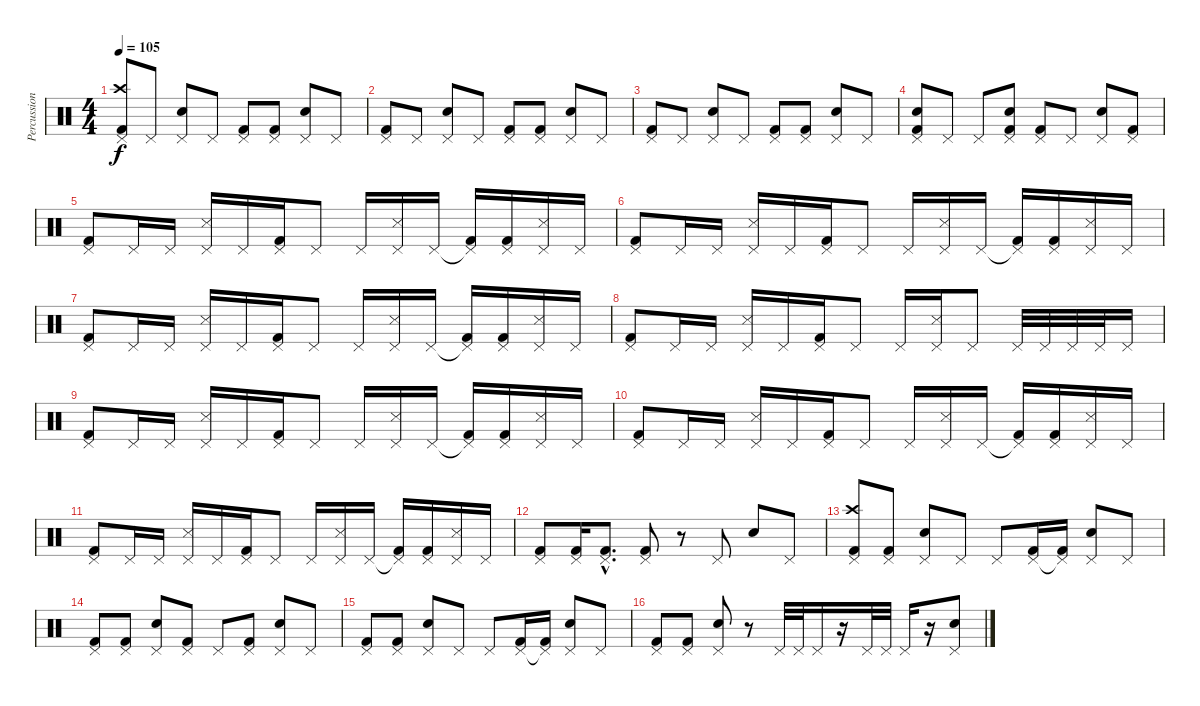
\track ("Percussion" "Percussion") {instrument percussion}
\staff {score}
\articulation defaults
\ts (4 4)
\tempo 105
\clef neutral
\ks c
("Pedal Hi-Hat (hit)" "Crash high (hit)" "Kick (hit) 2").8{dy f} "Pedal Hi-Hat (hit)".8 ("Pedal Hi-Hat (hit)" "Snare (hit) 2").8 "Pedal Hi-Hat (hit)".8 ("Pedal Hi-Hat (hit)" "Kick (hit) 2").8 ("Pedal Hi-Hat (hit)" "Kick (hit) 2").8 ("Pedal Hi-Hat (hit)" "Snare (hit) 2").8 "Pedal Hi-Hat (hit)".8 |
("Pedal Hi-Hat (hit)" "Kick (hit) 2").8 "Pedal Hi-Hat (hit)".8 ("Pedal Hi-Hat (hit)" "Snare (hit) 2").8 "Pedal Hi-Hat (hit)".8 ("Pedal Hi-Hat (hit)" "Kick (hit) 2").8 ("Pedal Hi-Hat (hit)" "Kick (hit) 2").8 ("Pedal Hi-Hat (hit)" "Snare (hit) 2").8 "Pedal Hi-Hat (hit)".8 |
("Pedal Hi-Hat (hit)" "Kick (hit) 2").8 "Pedal Hi-Hat (hit)".8 ("Pedal Hi-Hat (hit)" "Snare (hit) 2").8 "Pedal Hi-Hat (hit)".8 ("Pedal Hi-Hat (hit)" "Kick (hit) 2").8 ("Pedal Hi-Hat (hit)" "Kick (hit) 2").8 ("Pedal Hi-Hat (hit)" "Snare (hit) 2").8 "Pedal Hi-Hat (hit)".8 |
("Pedal Hi-Hat (hit)" "Snare (hit) 2" "Kick (hit) 2").8 "Pedal Hi-Hat (hit)".8 "Pedal Hi-Hat (hit)".8 ("Pedal Hi-Hat (hit)" "Snare (hit) 2" "Kick (hit) 2").8 ("Pedal Hi-Hat (hit)" "Kick (hit) 2").8 "Pedal Hi-Hat (hit)".8 ("Pedal Hi-Hat (hit)" "Snare (hit) 2").8 ("Pedal Hi-Hat (hit)" "Kick (hit) 2").8 |
("Pedal Hi-Hat (hit)" "Kick (hit) 2").8{volume 12} "Pedal Hi-Hat (hit)".16 "Pedal Hi-Hat (hit)".16 ("Pedal Hi-Hat (hit)" "Snare (side stick) 3").16 "Pedal Hi-Hat (hit)".16 ("Pedal Hi-Hat (hit)" "Kick (hit) 2").16 "Pedal Hi-Hat (hit)".8 "Pedal Hi-Hat (hit)".16 ("Pedal Hi-Hat (hit)" "Snare (side stick) 3").16 "Pedal Hi-Hat (hit)".16 ("Pedal Hi-Hat (hit)"{t} "Kick (hit) 2").16 ("Pedal Hi-Hat (hit)" "Kick (hit) 2").16 ("Pedal Hi-Hat (hit)" "Snare (side stick) 3").16 "Pedal Hi-Hat (hit)".16 |
("Pedal Hi-Hat (hit)" "Kick (hit) 2").8 "Pedal Hi-Hat (hit)".16 "Pedal Hi-Hat (hit)".16 ("Pedal Hi-Hat (hit)" "Snare (side stick) 3").16 "Pedal Hi-Hat (hit)".16 ("Pedal Hi-Hat (hit)" "Kick (hit) 2").16 "Pedal Hi-Hat (hit)".8 "Pedal Hi-Hat (hit)".16 ("Pedal Hi-Hat (hit)" "Snare (side stick) 3").16 "Pedal Hi-Hat (hit)".16 ("Pedal Hi-Hat (hit)"{t} "Kick (hit) 2").16 ("Pedal Hi-Hat (hit)" "Kick (hit) 2").16 ("Pedal Hi-Hat (hit)" "Snare (side stick) 3").16 "Pedal Hi-Hat (hit)".16 |
("Pedal Hi-Hat (hit)" "Kick (hit) 2").8 "Pedal Hi-Hat (hit)".16 "Pedal Hi-Hat (hit)".16 ("Pedal Hi-Hat (hit)" "Snare (side stick) 3").16 "Pedal Hi-Hat (hit)".16 ("Pedal Hi-Hat (hit)" "Kick (hit) 2").16 "Pedal Hi-Hat (hit)".8 "Pedal Hi-Hat (hit)".16 ("Pedal Hi-Hat (hit)" "Snare (side stick) 3").16 "Pedal Hi-Hat (hit)".16 ("Pedal Hi-Hat (hit)"{t} "Kick (hit) 2").16 ("Pedal Hi-Hat (hit)" "Kick (hit) 2").16 ("Pedal Hi-Hat (hit)" "Snare (side stick) 3").16 "Pedal Hi-Hat (hit)".16 |
("Pedal Hi-Hat (hit)" "Kick (hit) 2").8 "Pedal Hi-Hat (hit)".16 "Pedal Hi-Hat (hit)".16 ("Pedal Hi-Hat (hit)" "Snare (side stick) 3").16 "Pedal Hi-Hat (hit)".16 ("Pedal Hi-Hat (hit)" "Kick (hit) 2").16 "Pedal Hi-Hat (hit)".8 "Pedal Hi-Hat (hit)".16 ("Pedal Hi-Hat (hit)" "Snare (side stick) 3").16 "Pedal Hi-Hat (hit)".8 "Pedal Hi-Hat (hit)".32 "Pedal Hi-Hat (hit)".32 "Pedal Hi-Hat (hit)".32 "Pedal Hi-Hat (hit)".32 "Pedal Hi-Hat (hit)".16 |
("Pedal Hi-Hat (hit)" "Kick (hit) 2").8 "Pedal Hi-Hat (hit)".16 "Pedal Hi-Hat (hit)".16 ("Pedal Hi-Hat (hit)" "Snare (side stick) 3").16 "Pedal Hi-Hat (hit)".16 ("Pedal Hi-Hat (hit)" "Kick (hit) 2").16 "Pedal Hi-Hat (hit)".8 "Pedal Hi-Hat (hit)".16 ("Pedal Hi-Hat (hit)" "Snare (side stick) 3").16 "Pedal Hi-Hat (hit)".16 ("Pedal Hi-Hat (hit)"{t} "Kick (hit) 2").16 ("Pedal Hi-Hat (hit)" "Kick (hit) 2").16 ("Pedal Hi-Hat (hit)" "Snare (side stick) 3").16 "Pedal Hi-Hat (hit)".16 |
("Pedal Hi-Hat (hit)" "Kick (hit) 2").8 "Pedal Hi-Hat (hit)".16 "Pedal Hi-Hat (hit)".16 ("Pedal Hi-Hat (hit)" "Snare (side stick) 3").16 "Pedal Hi-Hat (hit)".16 ("Pedal Hi-Hat (hit)" "Kick (hit) 2").16 "Pedal Hi-Hat (hit)".8 "Pedal Hi-Hat (hit)".16 ("Pedal Hi-Hat (hit)" "Snare (side stick) 3").16 "Pedal Hi-Hat (hit)".16 ("Pedal Hi-Hat (hit)"{t} "Kick (hit) 2").16 ("Pedal Hi-Hat (hit)" "Kick (hit) 2").16 ("Pedal Hi-Hat (hit)" "Snare (side stick) 3").16 "Pedal Hi-Hat (hit)".16 |
("Pedal Hi-Hat (hit)" "Kick (hit) 2").8 "Pedal Hi-Hat (hit)".16 "Pedal Hi-Hat (hit)".16 ("Pedal Hi-Hat (hit)" "Snare (side stick) 3").16 "Pedal Hi-Hat (hit)".16 ("Pedal Hi-Hat (hit)" "Kick (hit) 2").16 "Pedal Hi-Hat (hit)".8 "Pedal Hi-Hat (hit)".16 ("Pedal Hi-Hat (hit)" "Snare (side stick) 3").16 "Pedal Hi-Hat (hit)".16 ("Pedal Hi-Hat (hit)"{t} "Kick (hit) 2").16 ("Pedal Hi-Hat (hit)" "Kick (hit) 2").16 ("Pedal Hi-Hat (hit)" "Snare (side stick) 3").16 "Pedal Hi-Hat (hit)".16 |
("Pedal Hi-Hat (hit)" "Kick (hit) 2").8{volume 14} ("Pedal Hi-Hat (hit)" "Kick (hit) 2").16 ("Pedal Hi-Hat (hit)"{hac} "Kick (hit) 2"{hac}).8{d} ("Pedal Hi-Hat (hit)" "Kick (hit) 2").8 r.8 "Pedal Hi-Hat (hit)".8 "Snare (hit) 2".8 "Pedal Hi-Hat (hit)".8 |
("Pedal Hi-Hat (hit)" "Crash high (hit)" "Kick (hit) 2").8{volume 16} ("Pedal Hi-Hat (hit)" "Kick (hit) 2").8 ("Pedal Hi-Hat (hit)" "Snare (hit) 2").8 "Pedal Hi-Hat (hit)".8 "Pedal Hi-Hat (hit)".8 ("Pedal Hi-Hat (hit)" "Kick (hit) 2").16 ("Pedal Hi-Hat (hit)"{t} "Kick (hit) 2").16 ("Pedal Hi-Hat (hit)" "Snare (hit) 2").8 "Pedal Hi-Hat (hit)".8 |
("Pedal Hi-Hat (hit)" "Kick (hit) 2").8 ("Pedal Hi-Hat (hit)" "Kick (hit) 2").8 ("Pedal Hi-Hat (hit)" "Snare (hit) 2").8 ("Pedal Hi-Hat (hit)" "Kick (hit) 2").8 "Pedal Hi-Hat (hit)".8 ("Pedal Hi-Hat (hit)" "Kick (hit) 2").8 ("Pedal Hi-Hat (hit)" "Snare (hit) 2").8 "Pedal Hi-Hat (hit)".8 |
("Pedal Hi-Hat (hit)" "Kick (hit) 2").8 ("Pedal Hi-Hat (hit)" "Kick (hit) 2").8 ("Pedal Hi-Hat (hit)" "Snare (hit) 2").8 "Pedal Hi-Hat (hit)".8 "Pedal Hi-Hat (hit)".8 ("Pedal Hi-Hat (hit)" "Kick (hit) 2").16 ("Pedal Hi-Hat (hit)"{t} "Kick (hit) 2").16 ("Pedal Hi-Hat (hit)" "Snare (hit) 2").8 "Pedal Hi-Hat (hit)".8 |
("Pedal Hi-Hat (hit)" "Kick (hit) 2").8 ("Pedal Hi-Hat (hit)" "Kick (hit) 2").8 ("Pedal Hi-Hat (hit)" "Snare (hit) 2").8 r.8 "Pedal Hi-Hat (hit)".32 "Pedal Hi-Hat (hit)".32 "Pedal Hi-Hat (hit)".16 r.16 "Pedal Hi-Hat (hit)".32 "Pedal Hi-Hat (hit)".32 "Pedal Hi-Hat (hit)".16 r.16 ("Pedal Hi-Hat (hit)" "Snare (hit) 2").8
